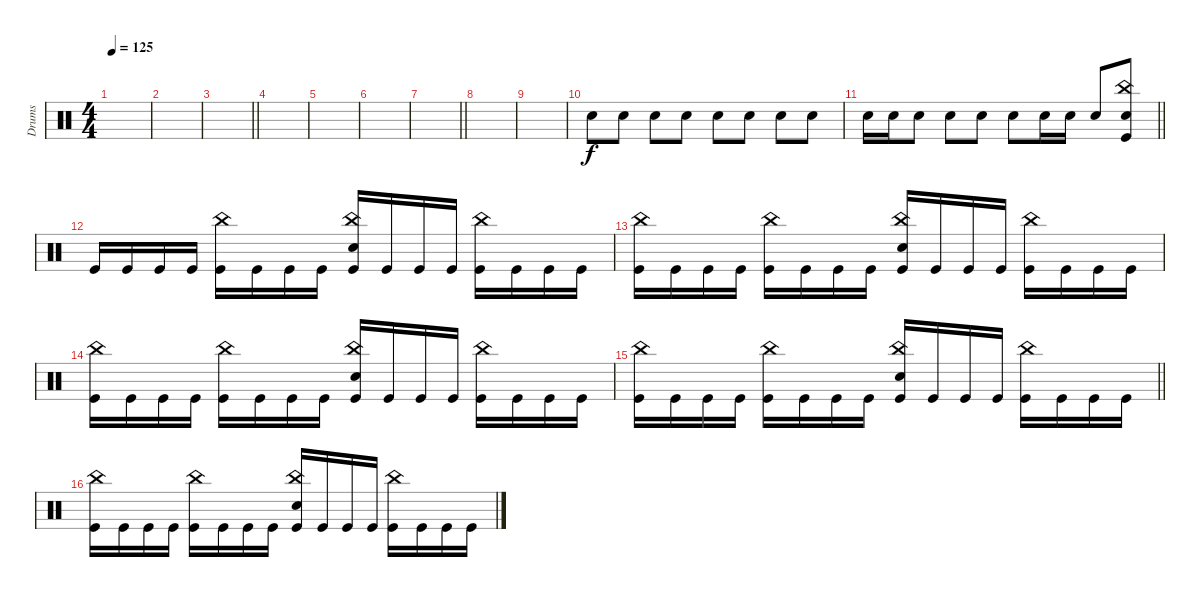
\track ("Drums" "Drums") {instrument percussion}
\staff
\articulation defaults
\ts (4 4)
\tempo 125
\clef neutral
\ks c
|
|
\barLineRight lightlight
|
|
|
|
\barLineRight lightlight
|
|
|
"Electric Snare (hit)".8 "Electric Snare (hit)".8 "Electric Snare (hit)".8 "Electric Snare (hit)".8 "Electric Snare (hit)".8 "Electric Snare (hit)".8 "Electric Snare (hit)".8 "Electric Snare (hit)".8 |
\barLineRight lightlight "Electric Snare (hit)".16 "Electric Snare (hit)".16 "Electric Snare (hit)".8 "Electric Snare (hit)".8 "Electric Snare (hit)".8 "Electric Snare (hit)".8 "Electric Snare (hit)".16 "Electric Snare (hit)".16 "Electric Snare (hit)".8
("China (hit)" "Electric Snare (hit)" "Kick (hit)").8 |
\section ("" "")
"Kick (hit)".16 "Kick (hit)".16 "Kick (hit)".16 "Kick (hit)".16 ("China (hit)" "Kick (hit)").16 "Kick (hit)".16 "Kick (hit)".16 "Kick (hit)".16 ("China (hit)" "Electric Snare (hit)" "Kick (hit)").16 "Kick (hit)".16 "Kick (hit)".16 "Kick (hit)".16 ("China (hit)" "Kick (hit)").16 "Kick (hit)".16 "Kick (hit)".16 "Kick (hit)".16 |
("China (hit)" "Kick (hit)").16 "Kick (hit)".16 "Kick (hit)".16 "Kick (hit)".16 ("China (hit)" "Kick (hit)").16 "Kick (hit)".16 "Kick (hit)".16 "Kick (hit)".16 ("China (hit)" "Electric Snare (hit)" "Kick (hit)").16 "Kick (hit)".16 "Kick (hit)".16 "Kick (hit)".16 ("China (hit)" "Kick (hit)").16 "Kick (hit)".16 "Kick (hit)".16 "Kick (hit)".16 |
("China (hit)" "Kick (hit)").16 "Kick (hit)".16 "Kick (hit)".16 "Kick (hit)".16 ("China (hit)" "Kick (hit)").16 "Kick (hit)".16 "Kick (hit)".16 "Kick (hit)".16 ("China (hit)" "Electric Snare (hit)" "Kick (hit)").16 "Kick (hit)".16 "Kick (hit)".16 "Kick (hit)".16 ("China (hit)" "Kick (hit)").16 "Kick (hit)".16 "Kick (hit)".16 "Kick (hit)".16 |
\barLineRight lightlight
("China (hit)" "Kick (hit)").16 "Kick (hit)".16 "Kick (hit)".16 "Kick (hit)".16 ("China (hit)" "Kick (hit)").16 "Kick (hit)".16 "Kick (hit)".16 "Kick (hit)".16 ("China (hit)" "Electric Snare (hit)" "Kick (hit)").16 "Kick (hit)".16 "Kick (hit)".16 "Kick (hit)".16 ("China (hit)" "Kick (hit)").16 "Kick (hit)".16 "Kick (hit)".16 "Kick (hit)".16 |
("China (hit)" "Kick (hit)").16 "Kick (hit)".16 "Kick (hit)".16 "Kick (hit)".16 ("China (hit)" "Kick (hit)").16 "Kick (hit)".16 "Kick (hit)".16 "Kick (hit)".16 ("China (hit)" "Electric Snare (hit)" "Kick (hit)").16 "Kick (hit)".16 "Kick (hit)".16 "Kick (hit)".16 ("China (hit)" "Kick (hit)").16 "Kick (hit)".16 "Kick (hit)".16 "Kick (hit)".16
